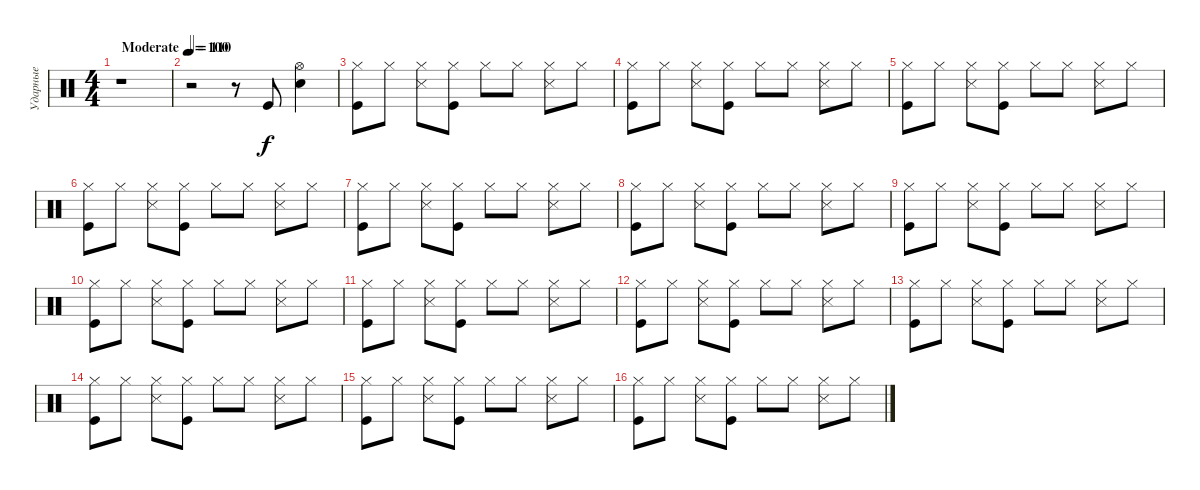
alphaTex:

\track ("Ударные" "Ударные") {instrument percussion}
\staff {score}
\articulation defaults
\ts (4 4)
\tempo (100 "Moderate")
\clef neutral
\ks c
r.1{dy f} |
\tempo 110
r.2 r.8 "Kick (hit)".8 ("Snare (hit) 2" "Hi-Hat (open)").4 |
("Hi-Hat (closed)" "Kick (hit)").8 "Hi-Hat (closed)".8 ("Hi-Hat (closed)" "Snare (side stick) 3").8 ("Hi-Hat (closed)" "Kick (hit)").8 "Hi-Hat (closed)".8 "Hi-Hat (closed)".8 ("Hi-Hat (closed)" "Snare (side stick) 3").8 "Hi-Hat (closed)".8 |
("Hi-Hat (closed)" "Kick (hit)").8 "Hi-Hat (closed)".8 ("Hi-Hat (closed)" "Snare (side stick) 3").8 ("Hi-Hat (closed)" "Kick (hit)").8 "Hi-Hat (closed)".8 "Hi-Hat (closed)".8 ("Hi-Hat (closed)" "Snare (side stick) 3").8 "Hi-Hat (closed)".8 |
("Hi-Hat (closed)" "Kick (hit)").8 "Hi-Hat (closed)".8 ("Hi-Hat (closed)" "Snare (side stick) 3").8 ("Hi-Hat (closed)" "Kick (hit)").8 "Hi-Hat (closed)".8 "Hi-Hat (closed)".8 ("Hi-Hat (closed)" "Snare (side stick) 3").8 "Hi-Hat (closed)".8 |
("Hi-Hat (closed)" "Kick (hit)").8 "Hi-Hat (closed)".8 ("Hi-Hat (closed)" "Snare (side stick) 3").8 ("Hi-Hat (closed)" "Kick (hit)").8 "Hi-Hat (closed)".8 "Hi-Hat (closed)".8 ("Hi-Hat (closed)" "Snare (side stick) 3").8 "Hi-Hat (closed)".8 |
("Hi-Hat (closed)" "Kick (hit)").8 "Hi-Hat (closed)".8 ("Hi-Hat (closed)" "Snare (side stick) 3").8 ("Hi-Hat (closed)" "Kick (hit)").8 "Hi-Hat (closed)".8 "Hi-Hat (closed)".8 ("Hi-Hat (closed)" "Snare (side stick) 3").8 "Hi-Hat (closed)".8 |
("Hi-Hat (closed)" "Kick (hit)").8 "Hi-Hat (closed)".8 ("Hi-Hat (closed)" "Snare (side stick) 3").8 ("Hi-Hat (closed)" "Kick (hit)").8 "Hi-Hat (closed)".8 "Hi-Hat (closed)".8 ("Hi-Hat (closed)" "Snare (side stick) 3").8 "Hi-Hat (closed)".8 |
("Hi-Hat (closed)" "Kick (hit)").8 "Hi-Hat (closed)".8 ("Hi-Hat (closed)" "Snare (side stick) 3").8 ("Hi-Hat (closed)" "Kick (hit)").8 "Hi-Hat (closed)".8 "Hi-Hat (closed)".8 ("Hi-Hat (closed)" "Snare (side stick) 3").8 "Hi-Hat (closed)".8 |
("Hi-Hat (closed)" "Kick (hit)").8 "Hi-Hat (closed)".8 ("Hi-Hat (closed)" "Snare (side stick) 3").8 ("Hi-Hat (closed)" "Kick (hit)").8 "Hi-Hat (closed)".8 "Hi-Hat (closed)".8 ("Hi-Hat (closed)" "Snare (side stick) 3").8 "Hi-Hat (closed)".8 |
("Hi-Hat (closed)" "Kick (hit)").8 "Hi-Hat (closed)".8 ("Hi-Hat (closed)" "Snare (side stick) 3").8 ("Hi-Hat (closed)" "Kick (hit)").8 "Hi-Hat (closed)".8 "Hi-Hat (closed)".8 ("Hi-Hat (closed)" "Snare (side stick) 3").8 "Hi-Hat (closed)".8 |
("Hi-Hat (closed)" "Kick (hit)").8 "Hi-Hat (closed)".8 ("Hi-Hat (closed)" "Snare (side stick) 3").8 ("Hi-Hat (closed)" "Kick (hit)").8 "Hi-Hat (closed)".8 "Hi-Hat (closed)".8 ("Hi-Hat (closed)" "Snare (side stick) 3").8 "Hi-Hat (closed)".8 |
("Hi-Hat (closed)" "Kick (hit)").8 "Hi-Hat (closed)".8 ("Hi-Hat (closed)" "Snare (side stick) 3").8 ("Hi-Hat (closed)" "Kick (hit)").8 "Hi-Hat (closed)".8 "Hi-Hat (closed)".8 ("Hi-Hat (closed)" "Snare (side stick) 3").8 "Hi-Hat (closed)".8 |
("Hi-Hat (closed)" "Kick (hit)").8 "Hi-Hat (closed)".8 ("Hi-Hat (closed)" "Snare (side stick) 3").8 ("Hi-Hat (closed)" "Kick (hit)").8 "Hi-Hat (closed)".8 "Hi-Hat (closed)".8 ("Hi-Hat (closed)" "Snare (side stick) 3").8 "Hi-Hat (closed)".8 |
("Hi-Hat (closed)" "Kick (hit)").8 "Hi-Hat (closed)".8 ("Hi-Hat (closed)" "Snare (side stick) 3").8 ("Hi-Hat (closed)" "Kick (hit)").8 "Hi-Hat (closed)".8 "Hi-Hat (closed)".8 ("Hi-Hat (closed)" "Snare (side stick) 3").8 "Hi-Hat (closed)".8 |
("Hi-Hat (closed)" "Kick (hit)").8 "Hi-Hat (closed)".8 ("Hi-Hat (closed)" "Snare (side stick) 3").8 ("Hi-Hat (closed)" "Kick (hit)").8 "Hi-Hat (closed)".8 "Hi-Hat (closed)".8 ("Hi-Hat (closed)" "Snare (side stick) 3").8 "Hi-Hat (closed)".8
